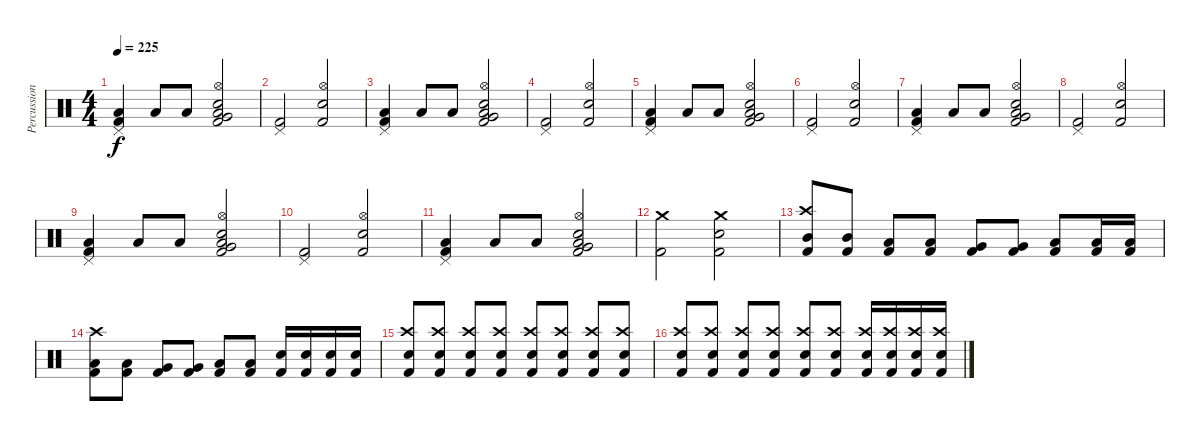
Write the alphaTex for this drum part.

\track ("Percussion" "Percussion") {instrument percussion}
\staff {score}
\articulation defaults
\ts (4 4)
\tempo 225
\clef neutral
\ks c
("Pedal Hi-Hat (hit)" "Low Floor Tom (hit)" "Kick (hit) 2").4{dy f} "Low Floor Tom (hit)".8 "Low Floor Tom (hit)".8 ("Hi-Hat (open)" "Low Tom (hit)" "Very Low Tom (hit)" "Hand Clap (hit)" "Kick (hit) 2").2 |
("Pedal Hi-Hat (hit)" "Kick (hit) 2").2 ("Hi-Hat (open)" "Hand Clap (hit)" "Kick (hit) 2").2 |
("Pedal Hi-Hat (hit)" "Low Floor Tom (hit)" "Kick (hit) 2").4 "Low Floor Tom (hit)".8 "Low Floor Tom (hit)".8 ("Hi-Hat (open)" "Low Tom (hit)" "Very Low Tom (hit)" "Hand Clap (hit)" "Kick (hit) 2").2 |
("Pedal Hi-Hat (hit)" "Kick (hit) 2").2 ("Hi-Hat (open)" "Hand Clap (hit)" "Kick (hit) 2").2 |
("Pedal Hi-Hat (hit)" "Low Floor Tom (hit)" "Kick (hit) 2").4 "Low Floor Tom (hit)".8 "Low Floor Tom (hit)".8 ("Hi-Hat (open)" "Low Tom (hit)" "Very Low Tom (hit)" "Hand Clap (hit)" "Kick (hit) 2").2 |
("Pedal Hi-Hat (hit)" "Kick (hit) 2").2 ("Hi-Hat (open)" "Hand Clap (hit)" "Kick (hit) 2").2 |
("Pedal Hi-Hat (hit)" "Low Floor Tom (hit)" "Kick (hit) 2").4 "Low Floor Tom (hit)".8 "Low Floor Tom (hit)".8 ("Hi-Hat (open)" "Low Tom (hit)" "Very Low Tom (hit)" "Hand Clap (hit)" "Kick (hit) 2").2 |
("Pedal Hi-Hat (hit)" "Kick (hit) 2").2 ("Hi-Hat (open)" "Hand Clap (hit)" "Kick (hit) 2").2 |
("Pedal Hi-Hat (hit)" "Low Floor Tom (hit)" "Kick (hit) 2").4 "Low Floor Tom (hit)".8 "Low Floor Tom (hit)".8 ("Hi-Hat (open)" "Low Tom (hit)" "Very Low Tom (hit)" "Hand Clap (hit)" "Kick (hit) 2").2 |
("Pedal Hi-Hat (hit)" "Kick (hit) 2").2 ("Hi-Hat (open)" "Hand Clap (hit)" "Kick (hit) 2").2 |
("Pedal Hi-Hat (hit)" "Low Floor Tom (hit)" "Kick (hit) 2").4 "Low Floor Tom (hit)".8 "Low Floor Tom (hit)".8 ("Hi-Hat (open)" "Low Tom (hit)" "Very Low Tom (hit)" "Hand Clap (hit)" "Kick (hit) 2").2 |
("Crash medium (hit)" "Kick (hit) 2").2 ("Crash medium (hit)" "Hand Clap (hit)" "Kick (hit) 2").2 |
("Crash high (hit)" "Mid Tom (hit)" "Kick (hit) 2").8 ("Mid Tom (hit)" "Kick (hit) 2").8 ("Low Tom (hit)" "Kick (hit) 2").8 ("Low Tom (hit)" "Kick (hit) 2").8 ("Very Low Tom (hit)" "Kick (hit) 2").8 ("Very Low Tom (hit)" "Kick (hit) 2").8 ("Low Floor Tom (hit)" "Kick (hit) 2").8 ("Low Floor Tom (hit)" "Kick (hit) 2").16 ("Low Floor Tom (hit)" "Kick (hit) 2").16 |
("Crash high (hit)" "Low Tom (hit)" "Kick (hit) 2").8 ("Low Tom (hit)" "Kick (hit) 2").8 ("Very Low Tom (hit)" "Kick (hit) 2").8 ("Very Low Tom (hit)" "Kick (hit) 2").8 ("Low Floor Tom (hit)" "Kick (hit) 2").8 ("Low Floor Tom (hit)" "Kick (hit) 2").8 ("Electric Snare (hit)" "Kick (hit) 2").16 ("Electric Snare (hit)" "Kick (hit) 2").16 ("Electric Snare (hit)" "Kick (hit) 2").16 ("Electric Snare (hit)" "Kick (hit) 2").16 |
("Crash high (hit)" "Electric Snare (hit)" "Kick (hit) 2").8 ("Crash high (hit)" "Electric Snare (hit)" "Kick (hit) 2").8 ("Crash high (hit)" "Electric Snare (hit)" "Kick (hit) 2").8 ("Crash high (hit)" "Electric Snare (hit)" "Kick (hit) 2").8 ("Crash high (hit)" "Electric Snare (hit)" "Kick (hit) 2").8 ("Crash high (hit)" "Electric Snare (hit)" "Kick (hit) 2").8 ("Crash high (hit)" "Electric Snare (hit)" "Kick (hit) 2").8 ("Crash high (hit)" "Electric Snare (hit)" "Kick (hit) 2").8 |
("Crash high (hit)" "Electric Snare (hit)" "Kick (hit) 2").8 ("Crash high (hit)" "Electric Snare (hit)" "Kick (hit) 2").8 ("Crash high (hit)" "Electric Snare (hit)" "Kick (hit) 2").8 ("Crash high (hit)" "Electric Snare (hit)" "Kick (hit) 2").8 ("Crash high (hit)" "Electric Snare (hit)" "Kick (hit) 2").8 ("Crash high (hit)" "Electric Snare (hit)" "Kick (hit) 2").8 ("Crash high (hit)" "Electric Snare (hit)" "Kick (hit) 2").16 ("Crash high (hit)" "Electric Snare (hit)" "Kick (hit) 2").16 ("Crash high (hit)" "Electric Snare (hit)" "Kick (hit) 2").16 ("Crash high (hit)" "Electric Snare (hit)" "Kick (hit) 2").16
